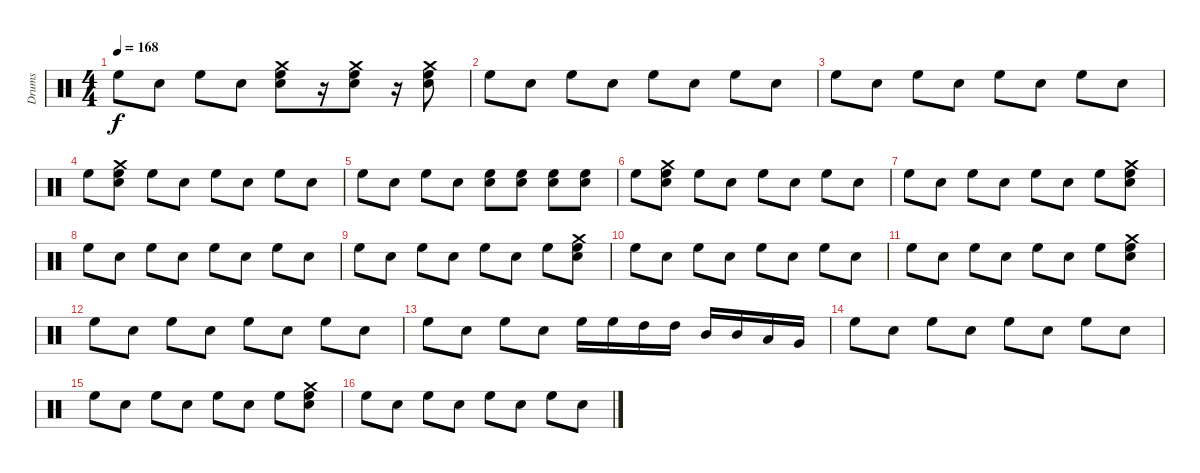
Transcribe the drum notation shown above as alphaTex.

\track ("Drums" "Drums") {instrument percussion}
\staff {score}
\articulation defaults
\ts (4 4)
\tempo 168
\clef neutral
\ks c "High Floor Tom (hit)".8{dy f} "Electric Snare (hit)".8 "High Floor Tom (hit)".8 "Electric Snare (hit)".8
("Electric Snare (hit)" "High Floor Tom (hit)" "Crash medium (hit)").8 r.16 ("Electric Snare (hit)" "High Floor Tom (hit)" "Crash medium (hit)").8 r.16 ("Electric Snare (hit)" "High Floor Tom (hit)" "Crash medium (hit)").8 |
"High Floor Tom (hit)".8 "Electric Snare (hit)".8 "High Floor Tom (hit)".8 "Electric Snare (hit)".8 "High Floor Tom (hit)".8 "Electric Snare (hit)".8 "High Floor Tom (hit)".8 "Electric Snare (hit)".8 |
"High Floor Tom (hit)".8 "Electric Snare (hit)".8 "High Floor Tom (hit)".8 "Electric Snare (hit)".8 "High Floor Tom (hit)".8 "Electric Snare (hit)".8 "High Floor Tom (hit)".8 "Electric Snare (hit)".8 |
"High Floor Tom (hit)".8 ("Electric Snare (hit)" "Crash medium (hit)" "High Floor Tom (hit)").8 "High Floor Tom (hit)".8 "Electric Snare (hit)".8 "High Floor Tom (hit)".8 "Electric Snare (hit)".8 "High Floor Tom (hit)".8 "Electric Snare (hit)".8 |
"High Floor Tom (hit)".8 "Electric Snare (hit)".8 "High Floor Tom (hit)".8 "Electric Snare (hit)".8 ("High Floor Tom (hit)" "Electric Snare (hit)").8 ("High Floor Tom (hit)" "Electric Snare (hit)").8 ("High Floor Tom (hit)" "Electric Snare (hit)").8 ("High Floor Tom (hit)" "Electric Snare (hit)").8 |
"High Floor Tom (hit)".8 ("Electric Snare (hit)" "Crash medium (hit)" "High Floor Tom (hit)").8 "High Floor Tom (hit)".8 "Electric Snare (hit)".8 "High Floor Tom (hit)".8 "Electric Snare (hit)".8 "High Floor Tom (hit)".8 "Electric Snare (hit)".8 |
"High Floor Tom (hit)".8 "Electric Snare (hit)".8 "High Floor Tom (hit)".8 "Electric Snare (hit)".8 "High Floor Tom (hit)".8 "Electric Snare (hit)".8 "High Floor Tom (hit)".8 ("Electric Snare (hit)" "Crash medium (hit)" "High Floor Tom (hit)").8 |
"High Floor Tom (hit)".8 "Electric Snare (hit)".8 "High Floor Tom (hit)".8 "Electric Snare (hit)".8 "High Floor Tom (hit)".8 "Electric Snare (hit)".8 "High Floor Tom (hit)".8 "Electric Snare (hit)".8 |
"High Floor Tom (hit)".8 "Electric Snare (hit)".8 "High Floor Tom (hit)".8 "Electric Snare (hit)".8 "High Floor Tom (hit)".8 "Electric Snare (hit)".8 "High Floor Tom (hit)".8 ("Electric Snare (hit)" "Crash medium (hit)" "High Floor Tom (hit)").8 |
"High Floor Tom (hit)".8 "Electric Snare (hit)".8 "High Floor Tom (hit)".8 "Electric Snare (hit)".8 "High Floor Tom (hit)".8 "Electric Snare (hit)".8 "High Floor Tom (hit)".8 "Electric Snare (hit)".8 |
"High Floor Tom (hit)".8 "Electric Snare (hit)".8 "High Floor Tom (hit)".8 "Electric Snare (hit)".8 "High Floor Tom (hit)".8 "Electric Snare (hit)".8 "High Floor Tom (hit)".8 ("Electric Snare (hit)" "Crash medium (hit)" "High Floor Tom (hit)").8 |
"High Floor Tom (hit)".8 "Electric Snare (hit)".8 "High Floor Tom (hit)".8 "Electric Snare (hit)".8 "High Floor Tom (hit)".8 "Electric Snare (hit)".8 "High Floor Tom (hit)".8 "Electric Snare (hit)".8 |
"High Floor Tom (hit)".8 "Electric Snare (hit)".8 "High Floor Tom (hit)".8 "Electric Snare (hit)".8 "High Floor Tom (hit)".16 "High Floor Tom (hit)".16 "High Tom (hit)".16 "High Tom (hit)".16 "Mid Tom (hit)".16 "Mid Tom (hit)".16 "Low Tom (hit)".16 "Very Low Tom (hit)".16 |
"High Floor Tom (hit)".8 "Electric Snare (hit)".8 "High Floor Tom (hit)".8 "Electric Snare (hit)".8 "High Floor Tom (hit)".8 "Electric Snare (hit)".8 "High Floor Tom (hit)".8 "Electric Snare (hit)".8 |
"High Floor Tom (hit)".8 "Electric Snare (hit)".8 "High Floor Tom (hit)".8 "Electric Snare (hit)".8 "High Floor Tom (hit)".8 "Electric Snare (hit)".8 "High Floor Tom (hit)".8 ("Electric Snare (hit)" "Crash medium (hit)" "High Floor Tom (hit)").8 |
"High Floor Tom (hit)".8 "Electric Snare (hit)".8 "High Floor Tom (hit)".8 "Electric Snare (hit)".8 "High Floor Tom (hit)".8 "Electric Snare (hit)".8 "High Floor Tom (hit)".8 "Electric Snare (hit)".8
